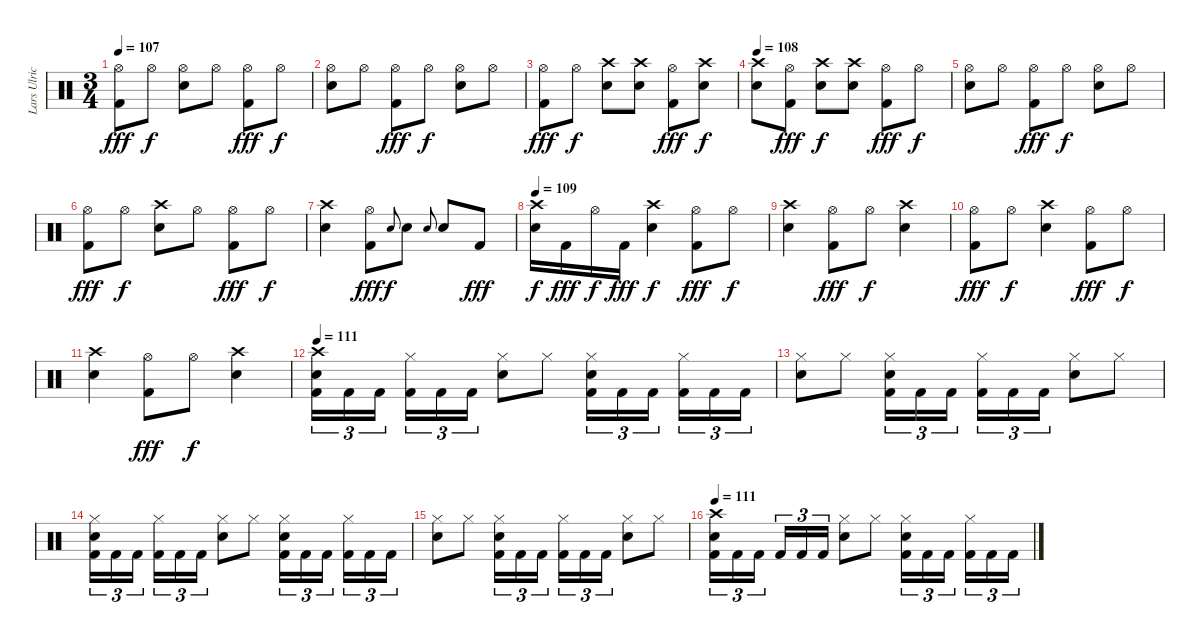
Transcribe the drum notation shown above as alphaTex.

\track ("Lars Ulrich" "Lars Ulric") {instrument percussion}
\staff {score}
\articulation defaults
\ts (3 4)
\tempo 107
\clef neutral
\ks c
("Hi-Hat (open)" "Kick (hit) 2").8{dy fff} "Hi-Hat (open)".8{dy f} ("Hi-Hat (open)" "Electric Snare (hit)").8 "Hi-Hat (open)".8 ("Hi-Hat (open)" "Kick (hit) 2").8{dy fff} "Hi-Hat (open)".8{dy f} |
("Hi-Hat (open)" "Electric Snare (hit)").8 "Hi-Hat (open)".8 ("Hi-Hat (open)" "Kick (hit) 2").8{dy fff} "Hi-Hat (open)".8{dy f} ("Hi-Hat (open)" "Electric Snare (hit)").8 "Hi-Hat (open)".8 |
("Hi-Hat (open)" "Kick (hit) 2").8{dy fff} "Hi-Hat (open)".8{dy f} ("Crash high (hit)" "Electric Snare (hit)").8 ("Crash high (hit)" "Electric Snare (hit)").8 ("Hi-Hat (open)" "Kick (hit) 2").8{dy fff} ("Crash high (hit)" "Electric Snare (hit)").8{dy f} |
\tempo 108
("Crash high (hit)" "Electric Snare (hit)").8 ("Hi-Hat (open)" "Kick (hit) 2").8{dy fff} ("Crash high (hit)" "Electric Snare (hit)").8{dy f} ("Crash high (hit)" "Electric Snare (hit)").8 ("Hi-Hat (open)" "Kick (hit) 2").8{dy fff} "Hi-Hat (open)".8{dy f} |
("Hi-Hat (open)" "Electric Snare (hit)").8 "Hi-Hat (open)".8 ("Hi-Hat (open)" "Kick (hit) 2").8{dy fff} "Hi-Hat (open)".8{dy f} ("Hi-Hat (open)" "Electric Snare (hit)").8 "Hi-Hat (open)".8 |
("Hi-Hat (open)" "Kick (hit) 2").8{dy fff} "Hi-Hat (open)".8{dy f} ("Crash high (hit)" "Electric Snare (hit)").8 "Hi-Hat (open)".8 ("Hi-Hat (open)" "Kick (hit) 2").8{dy fff} "Hi-Hat (open)".8{dy f} |
("Crash high (hit)" "Electric Snare (hit)").4 ("Hi-Hat (open)" "Kick (hit) 2").8{dy fff} "Electric Snare (hit)".8{gr onbeat dy f} "Electric Snare (hit)".8 "Electric Snare (hit)".8{gr onbeat} "Electric Snare (hit)".8 "Kick (hit) 2".8{dy fff} |
\tempo 109
("Crash high (hit)" "Electric Snare (hit)").16{dy f} "Kick (hit) 2".16{dy fff} "Hi-Hat (open)".16{dy f} "Kick (hit) 2".16{dy fff} ("Crash high (hit)" "Electric Snare (hit)").4{dy f} ("Hi-Hat (open)" "Kick (hit) 2").8{dy fff} "Hi-Hat (open)".8{dy f} |
("Crash high (hit)" "Electric Snare (hit)").4 ("Hi-Hat (open)" "Kick (hit) 2").8{dy fff} "Hi-Hat (open)".8{dy f} ("Crash high (hit)" "Electric Snare (hit)").4 |
("Hi-Hat (open)" "Kick (hit) 2").8{dy fff} "Hi-Hat (open)".8{dy f} ("Crash high (hit)" "Electric Snare (hit)").4 ("Hi-Hat (open)" "Kick (hit) 2").8{dy fff} "Hi-Hat (open)".8{dy f} |
("Crash high (hit)" "Electric Snare (hit)").4 ("Hi-Hat (open)" "Kick (hit) 2").8{dy fff} "Hi-Hat (open)".8{dy f} ("Crash high (hit)" "Electric Snare (hit)").4 |
\tempo 111
("Crash high (hit)" "Electric Snare (hit)" "Kick (hit) 2").16{tu (3 2)} "Kick (hit) 2".16{tu (3 2)} "Kick (hit) 2".16{tu (3 2) beam splitsecondary} ("Hi-Hat (closed)" "Kick (hit) 2").16{tu (3 2)} "Kick (hit) 2".16{tu (3 2)} "Kick (hit) 2".16{tu (3 2)} ("Hi-Hat (closed)" "Electric Snare (hit)").8 "Hi-Hat (closed)".8 ("Hi-Hat (closed)" "Electric Snare (hit)" "Kick (hit) 2").16{tu (3 2)} "Kick (hit) 2".16{tu (3 2)} "Kick (hit) 2".16{tu (3 2) beam splitsecondary} ("Hi-Hat (closed)" "Kick (hit) 2").16{tu (3 2)} "Kick (hit) 2".16{tu (3 2)} "Kick (hit) 2".16{tu (3 2)} |
("Hi-Hat (closed)" "Electric Snare (hit)").8 "Hi-Hat (closed)".8 ("Hi-Hat (closed)" "Electric Snare (hit)" "Kick (hit) 2").16{tu (3 2)} "Kick (hit) 2".16{tu (3 2)} "Kick (hit) 2".16{tu (3 2) beam splitsecondary} ("Hi-Hat (closed)" "Kick (hit) 2").16{tu (3 2)} "Kick (hit) 2".16{tu (3 2)} "Kick (hit) 2".16{tu (3 2)} ("Hi-Hat (closed)" "Electric Snare (hit)").8 "Hi-Hat (closed)".8 |
("Hi-Hat (closed)" "Electric Snare (hit)" "Kick (hit) 2").16{tu (3 2)} "Kick (hit) 2".16{tu (3 2)} "Kick (hit) 2".16{tu (3 2) beam splitsecondary} ("Hi-Hat (closed)" "Kick (hit) 2").16{tu (3 2)} "Kick (hit) 2".16{tu (3 2)} "Kick (hit) 2".16{tu (3 2)} ("Hi-Hat (closed)" "Electric Snare (hit)").8 "Hi-Hat (closed)".8 ("Hi-Hat (closed)" "Electric Snare (hit)" "Kick (hit) 2").16{tu (3 2)} "Kick (hit) 2".16{tu (3 2)} "Kick (hit) 2".16{tu (3 2) beam splitsecondary} ("Hi-Hat (closed)" "Kick (hit) 2").16{tu (3 2)} "Kick (hit) 2".16{tu (3 2)} "Kick (hit) 2".16{tu (3 2)} |
("Hi-Hat (closed)" "Electric Snare (hit)").8 "Hi-Hat (closed)".8 ("Hi-Hat (closed)" "Electric Snare (hit)" "Kick (hit) 2").16{tu (3 2)} "Kick (hit) 2".16{tu (3 2)} "Kick (hit) 2".16{tu (3 2) beam splitsecondary} ("Hi-Hat (closed)" "Kick (hit) 2").16{tu (3 2)} "Kick (hit) 2".16{tu (3 2)} "Kick (hit) 2".16{tu (3 2)} ("Hi-Hat (closed)" "Electric Snare (hit)").8 "Hi-Hat (closed)".8 |
\tempo 111
("Crash high (hit)" "Electric Snare (hit)" "Kick (hit) 2").16{tu (3 2)} "Kick (hit) 2".16{tu (3 2)} "Kick (hit) 2".16{tu (3 2) beam splitsecondary} "Kick (hit) 2".16{tu (3 2)} "Kick (hit) 2".16{tu (3 2)} "Kick (hit) 2".16{tu (3 2)} ("Hi-Hat (closed)" "Electric Snare (hit)").8 "Hi-Hat (closed)".8 ("Hi-Hat (closed)" "Electric Snare (hit)" "Kick (hit) 2").16{tu (3 2)} "Kick (hit) 2".16{tu (3 2)} "Kick (hit) 2".16{tu (3 2) beam splitsecondary} ("Hi-Hat (closed)" "Kick (hit) 2").16{tu (3 2)} "Kick (hit) 2".16{tu (3 2)} "Kick (hit) 2".16{tu (3 2)}
